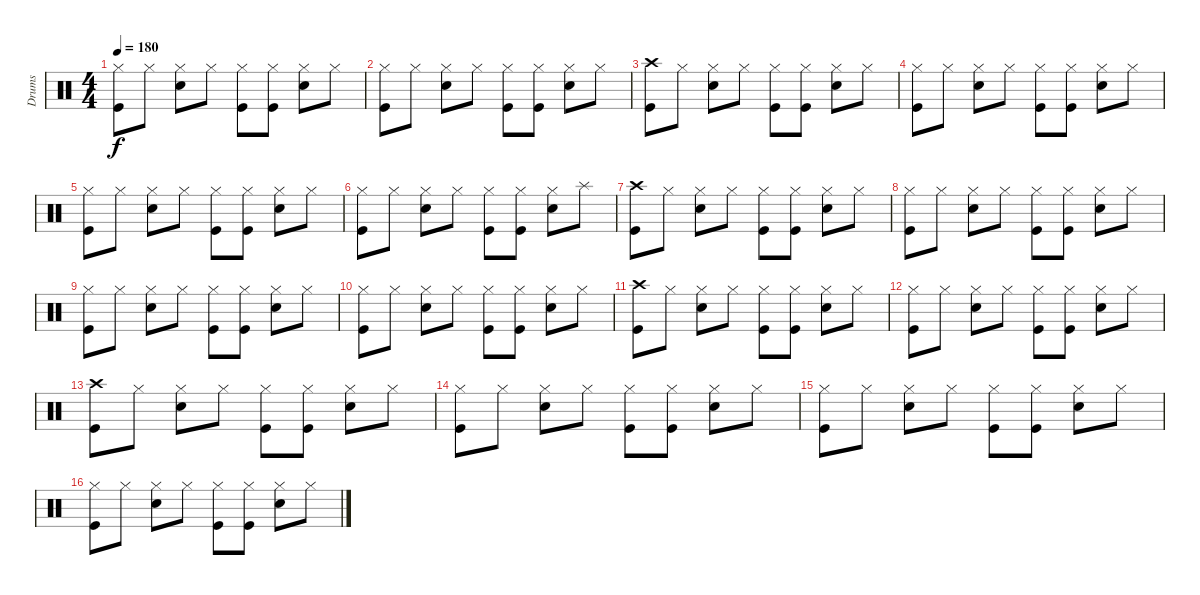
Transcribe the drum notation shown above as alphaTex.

\track ("Drums" "Drums") {instrument percussion}
\staff {score}
\articulation defaults
\ts (4 4)
\tempo 180
\clef neutral
\ks c
("Hi-Hat (closed)" "Kick (hit)").8{dy f} "Hi-Hat (closed)".8 ("Hi-Hat (closed)" "Snare (hit) 2").8 "Hi-Hat (closed)".8 ("Hi-Hat (closed)" "Kick (hit)").8 ("Hi-Hat (closed)" "Kick (hit)").8 ("Hi-Hat (closed)" "Snare (hit) 2").8 "Hi-Hat (closed)".8 |
("Hi-Hat (closed)" "Kick (hit)").8 "Hi-Hat (closed)".8 ("Hi-Hat (closed)" "Snare (hit) 2").8 "Hi-Hat (closed)".8 ("Hi-Hat (closed)" "Kick (hit)").8 ("Hi-Hat (closed)" "Kick (hit)").8 ("Hi-Hat (closed)" "Snare (hit) 2").8 "Hi-Hat (closed)".8 |
("Crash high (hit)" "Kick (hit)").8 "Hi-Hat (closed)".8 ("Hi-Hat (closed)" "Snare (hit) 2").8 "Hi-Hat (closed)".8 ("Hi-Hat (closed)" "Kick (hit)").8 ("Hi-Hat (closed)" "Kick (hit)").8 ("Hi-Hat (closed)" "Snare (hit) 2").8 "Hi-Hat (closed)".8 |
("Hi-Hat (closed)" "Kick (hit)").8 "Hi-Hat (closed)".8 ("Hi-Hat (closed)" "Snare (hit) 2").8 "Hi-Hat (closed)".8 ("Hi-Hat (closed)" "Kick (hit)").8 ("Hi-Hat (closed)" "Kick (hit)").8 ("Hi-Hat (closed)" "Snare (hit) 2").8 "Hi-Hat (closed)".8 |
("Hi-Hat (closed)" "Kick (hit)").8 "Hi-Hat (closed)".8 ("Hi-Hat (closed)" "Snare (hit) 2").8 "Hi-Hat (closed)".8 ("Hi-Hat (closed)" "Kick (hit)").8 ("Hi-Hat (closed)" "Kick (hit)").8 ("Hi-Hat (closed)" "Snare (hit) 2").8 "Hi-Hat (closed)".8 |
("Hi-Hat (closed)" "Kick (hit)").8 "Hi-Hat (closed)".8 ("Hi-Hat (closed)" "Snare (hit) 2").8 "Hi-Hat (closed)".8 ("Hi-Hat (closed)" "Kick (hit)").8 ("Hi-Hat (closed)" "Kick (hit)").8 ("Hi-Hat (closed)" "Snare (hit) 2").8 "Splash (hit)".8 |
("Crash high (hit)" "Kick (hit)").8 "Hi-Hat (closed)".8 ("Hi-Hat (closed)" "Snare (hit) 2").8 "Hi-Hat (closed)".8 ("Hi-Hat (closed)" "Kick (hit)").8 ("Hi-Hat (closed)" "Kick (hit)").8 ("Hi-Hat (closed)" "Snare (hit) 2").8 "Hi-Hat (closed)".8 |
("Hi-Hat (closed)" "Kick (hit)").8 "Hi-Hat (closed)".8 ("Hi-Hat (closed)" "Snare (hit) 2").8 "Hi-Hat (closed)".8 ("Hi-Hat (closed)" "Kick (hit)").8 ("Hi-Hat (closed)" "Kick (hit)").8 ("Hi-Hat (closed)" "Snare (hit) 2").8 "Hi-Hat (closed)".8 |
("Hi-Hat (closed)" "Kick (hit)").8 "Hi-Hat (closed)".8 ("Hi-Hat (closed)" "Snare (hit) 2").8 "Hi-Hat (closed)".8 ("Hi-Hat (closed)" "Kick (hit)").8 ("Hi-Hat (closed)" "Kick (hit)").8 ("Hi-Hat (closed)" "Snare (hit) 2").8 "Hi-Hat (closed)".8 |
("Hi-Hat (closed)" "Kick (hit)").8 "Hi-Hat (closed)".8 ("Hi-Hat (closed)" "Snare (hit) 2").8 "Hi-Hat (closed)".8 ("Hi-Hat (closed)" "Kick (hit)").8 ("Hi-Hat (closed)" "Kick (hit)").8 ("Hi-Hat (closed)" "Snare (hit) 2").8 "Hi-Hat (closed)".8 |
("Crash high (hit)" "Kick (hit)").8 "Hi-Hat (closed)".8 ("Hi-Hat (closed)" "Snare (hit) 2").8 "Hi-Hat (closed)".8 ("Hi-Hat (closed)" "Kick (hit)").8 ("Hi-Hat (closed)" "Kick (hit)").8 ("Hi-Hat (closed)" "Snare (hit) 2").8 "Hi-Hat (closed)".8 |
("Hi-Hat (closed)" "Kick (hit)").8 "Hi-Hat (closed)".8 ("Hi-Hat (closed)" "Snare (hit) 2").8 "Hi-Hat (closed)".8 ("Hi-Hat (closed)" "Kick (hit)").8 ("Hi-Hat (closed)" "Kick (hit)").8 ("Hi-Hat (closed)" "Snare (hit) 2").8 "Hi-Hat (closed)".8 |
("Crash high (hit)" "Kick (hit)").8 "Hi-Hat (closed)".8 ("Hi-Hat (closed)" "Snare (hit) 2").8 "Hi-Hat (closed)".8 ("Hi-Hat (closed)" "Kick (hit)").8 ("Hi-Hat (closed)" "Kick (hit)").8 ("Hi-Hat (closed)" "Snare (hit) 2").8 "Hi-Hat (closed)".8 |
("Hi-Hat (closed)" "Kick (hit)").8 "Hi-Hat (closed)".8 ("Hi-Hat (closed)" "Snare (hit) 2").8 "Hi-Hat (closed)".8 ("Hi-Hat (closed)" "Kick (hit)").8 ("Hi-Hat (closed)" "Kick (hit)").8 ("Hi-Hat (closed)" "Snare (hit) 2").8 "Hi-Hat (closed)".8 |
("Hi-Hat (closed)" "Kick (hit)").8 "Hi-Hat (closed)".8 ("Hi-Hat (closed)" "Snare (hit) 2").8 "Hi-Hat (closed)".8 ("Hi-Hat (closed)" "Kick (hit)").8 ("Hi-Hat (closed)" "Kick (hit)").8 ("Hi-Hat (closed)" "Snare (hit) 2").8 "Hi-Hat (closed)".8 |
("Hi-Hat (closed)" "Kick (hit)").8 "Hi-Hat (closed)".8 ("Hi-Hat (closed)" "Snare (hit) 2").8 "Hi-Hat (closed)".8 ("Hi-Hat (closed)" "Kick (hit)").8 ("Hi-Hat (closed)" "Kick (hit)").8 ("Hi-Hat (closed)" "Snare (hit) 2").8 "Hi-Hat (closed)".8
